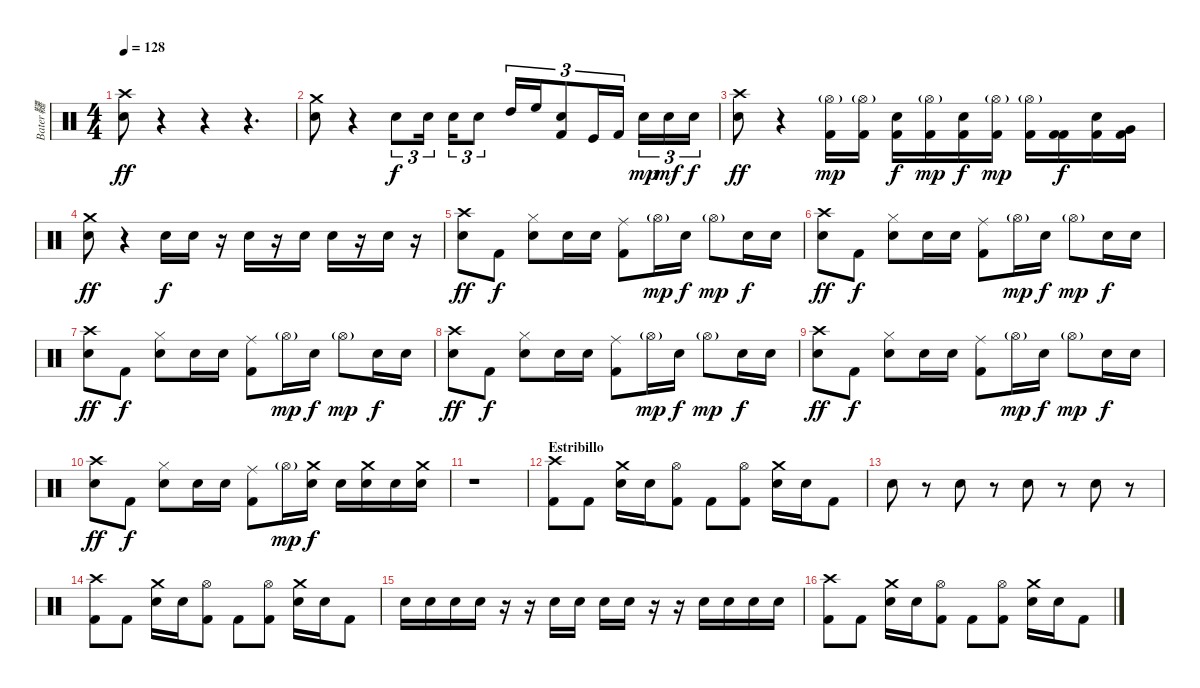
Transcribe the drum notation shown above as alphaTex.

\track ("Bater韆" "Bater韆") {instrument percussion}
\staff {score}
\articulation defaults
\ts (4 4)
\tempo 128
\clef neutral
\ks c
("Crash high (hit)" "Electric Snare (hit)").8{dy ff} r.4 r.4 r.4{d} |
("Crash medium (hit)" "Electric Snare (hit)").8 r.4 "Electric Snare (hit)".8{tu (3 2) dy f} "Snare (hit) 2".16{tu (3 2)} "Snare (hit) 2".16{tu (3 2)} "Electric Snare (hit)".8{tu (3 2)} "High Tom (hit)".16{tu (3 2)} "High Floor Tom (hit)".16{tu (3 2)} ("Electric Snare (hit)" "Kick (hit) 2").8{tu (3 2)} "Kick (hit)".16{tu (3 2)} "Kick (hit) 2".16{tu (3 2)} "Electric Snare (hit)".16{tu (3 2) dy mp} "Electric Snare (hit)".16{tu (3 2) dy mf} "Electric Snare (hit)".16{tu (3 2) dy f} |
("Crash high (hit)" "Electric Snare (hit)").8{dy ff} r.4 ("Hi-Hat (open)"{g} "Kick (hit) 2").16{dy mp} ("Hi-Hat (open)"{g} "Kick (hit) 2").16 ("Electric Snare (hit)" "Kick (hit) 2").16{dy f} ("Hi-Hat (open)"{g} "Kick (hit) 2").16{dy mp} ("Electric Snare (hit)" "Kick (hit) 2").16{dy f} ("Hi-Hat (open)"{g} "Kick (hit) 2").16{dy mp} ("Hi-Hat (open)"{g} "Kick (hit) 2").16 ("Kick (hit) 2" "Kick (hit) 2").16{dy f} ("Snare (hit) 2" "Kick (hit) 2").16 ("Very Low Tom (hit)" "Kick (hit) 2").16 |
("Crash medium (hit)" "Electric Snare (hit)").8{dy ff} r.4 "Electric Snare (hit)".16{dy f} "Electric Snare (hit)".16 r.16 "Electric Snare (hit)".16 r.16 "Electric Snare (hit)".16 "Electric Snare (hit)".16 r.16 "Electric Snare (hit)".16 r.16 |
("Crash high (hit)" "Electric Snare (hit)").8{dy ff} "Kick (hit) 2".8{dy f} ("Hi-Hat (closed)" "Electric Snare (hit)").8 "Snare (hit) 2".16 "Snare (hit) 2".16 ("Ride (middle)" "Kick (hit) 2").8 "Hi-Hat (open)"{g}.16{dy mp} "Electric Snare (hit)".16{dy f} "Hi-Hat (open)"{g}.8{dy mp} "Electric Snare (hit)".16{dy f} "Electric Snare (hit)".16 |
("Crash high (hit)" "Electric Snare (hit)").8{dy ff} "Kick (hit) 2".8{dy f} ("Hi-Hat (closed)" "Electric Snare (hit)").8 "Snare (hit) 2".16 "Snare (hit) 2".16 ("Ride (middle)" "Kick (hit) 2").8 "Hi-Hat (open)"{g}.16{dy mp} "Electric Snare (hit)".16{dy f} "Hi-Hat (open)"{g}.8{dy mp} "Electric Snare (hit)".16{dy f} "Electric Snare (hit)".16 |
("Crash high (hit)" "Electric Snare (hit)").8{dy ff} "Kick (hit) 2".8{dy f} ("Hi-Hat (closed)" "Electric Snare (hit)").8 "Snare (hit) 2".16 "Snare (hit) 2".16 ("Ride (middle)" "Kick (hit) 2").8 "Hi-Hat (open)"{g}.16{dy mp} "Electric Snare (hit)".16{dy f} "Hi-Hat (open)"{g}.8{dy mp} "Electric Snare (hit)".16{dy f} "Electric Snare (hit)".16 |
("Crash high (hit)" "Electric Snare (hit)").8{dy ff} "Kick (hit) 2".8{dy f} ("Hi-Hat (closed)" "Electric Snare (hit)").8 "Snare (hit) 2".16 "Snare (hit) 2".16 ("Ride (middle)" "Kick (hit) 2").8 "Hi-Hat (open)"{g}.16{dy mp} "Electric Snare (hit)".16{dy f} "Hi-Hat (open)"{g}.8{dy mp} "Electric Snare (hit)".16{dy f} "Electric Snare (hit)".16 |
("Crash high (hit)" "Electric Snare (hit)").8{dy ff} "Kick (hit) 2".8{dy f} ("Hi-Hat (closed)" "Electric Snare (hit)").8 "Snare (hit) 2".16 "Snare (hit) 2".16 ("Ride (middle)" "Kick (hit) 2").8 "Hi-Hat (open)"{g}.16{dy mp} "Electric Snare (hit)".16{dy f} "Hi-Hat (open)"{g}.8{dy mp} "Electric Snare (hit)".16{dy f} "Electric Snare (hit)".16 |
("Crash high (hit)" "Electric Snare (hit)").8{dy ff} "Kick (hit) 2".8{dy f} ("Hi-Hat (closed)" "Electric Snare (hit)").8 "Snare (hit) 2".16 "Snare (hit) 2".16 ("Ride (middle)" "Kick (hit) 2").8 "Hi-Hat (open)"{g}.16{dy mp} ("Crash medium (hit)" "Electric Snare (hit)").16{dy f} "Electric Snare (hit)".16 ("Crash medium (hit)" "Electric Snare (hit)").16 "Electric Snare (hit)".16 ("Crash medium (hit)" "Electric Snare (hit)").16 |
r.1 |
\section ("" "Estribillo")
("Crash high (hit)" "Kick (hit) 2").8 "Kick (hit) 2".8 ("Crash medium (hit)" "Electric Snare (hit)").16 "Electric Snare (hit)".16 ("Hi-Hat (open)" "Kick (hit) 2").8 "Kick (hit) 2".8 ("Hi-Hat (open)" "Kick (hit) 2").8 ("Crash medium (hit)" "Electric Snare (hit)").16 "Electric Snare (hit)".16 "Kick (hit) 2".8 |
"Electric Snare (hit)".8 r.8 "Electric Snare (hit)".8 r.8 "Electric Snare (hit)".8 r.8 "Electric Snare (hit)".8 r.8 |
("Crash high (hit)" "Kick (hit) 2").8 "Kick (hit) 2".8 ("Crash medium (hit)" "Electric Snare (hit)").16 "Electric Snare (hit)".16 ("Hi-Hat (open)" "Kick (hit) 2").8 "Kick (hit) 2".8 ("Hi-Hat (open)" "Kick (hit) 2").8 ("Crash medium (hit)" "Electric Snare (hit)").16 "Electric Snare (hit)".16 "Kick (hit) 2".8 |
"Electric Snare (hit)".16 "Electric Snare (hit)".16 "Electric Snare (hit)".16 "Electric Snare (hit)".16 r.16 r.16 "Electric Snare (hit)".16 "Electric Snare (hit)".16 "Electric Snare (hit)".16 "Electric Snare (hit)".16 r.16 r.16 "Electric Snare (hit)".16 "Electric Snare (hit)".16 "Electric Snare (hit)".16 "Electric Snare (hit)".16 |
("Crash high (hit)" "Kick (hit) 2").8 "Kick (hit) 2".8 ("Crash medium (hit)" "Electric Snare (hit)").16 "Electric Snare (hit)".16 ("Hi-Hat (open)" "Kick (hit) 2").8 "Kick (hit) 2".8 ("Hi-Hat (open)" "Kick (hit) 2").8 ("Crash medium (hit)" "Electric Snare (hit)").16 "Electric Snare (hit)".16 "Kick (hit) 2".8
